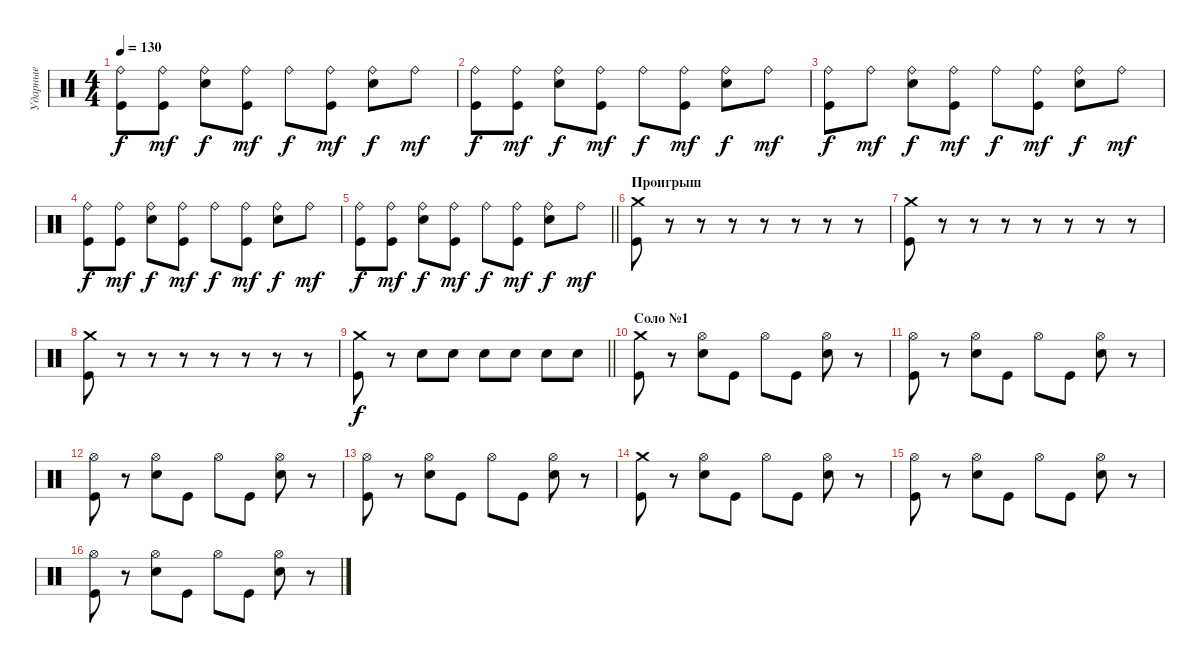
\track ("Ударные" "Ударные") {instrument percussion}
\staff {score}
\articulation defaults
\ts (4 4)
\tempo 130
\clef neutral
\ks c
("Ride (bell)" "Kick (hit)").8{dy f} ("Ride (bell)" "Kick (hit)").8{dy mf} ("Ride (bell)" "Electric Snare (hit)").8{dy f} ("Ride (bell)" "Kick (hit)").8{dy mf} "Ride (bell)".8{dy f} ("Ride (bell)" "Kick (hit)").8{dy mf} ("Ride (bell)" "Electric Snare (hit)").8{dy f} "Ride (bell)".8{dy mf} |
("Ride (bell)" "Kick (hit)").8{dy f} ("Ride (bell)" "Kick (hit)").8{dy mf} ("Ride (bell)" "Electric Snare (hit)").8{dy f} ("Ride (bell)" "Kick (hit)").8{dy mf} "Ride (bell)".8{dy f} ("Ride (bell)" "Kick (hit)").8{dy mf} ("Ride (bell)" "Electric Snare (hit)").8{dy f} "Ride (bell)".8{dy mf} |
("Ride (bell)" "Kick (hit)").8{dy f} "Ride (bell)".8{dy mf} ("Ride (bell)" "Electric Snare (hit)").8{dy f} ("Ride (bell)" "Kick (hit)").8{dy mf} "Ride (bell)".8{dy f} ("Ride (bell)" "Kick (hit)").8{dy mf} ("Ride (bell)" "Electric Snare (hit)").8{dy f} "Ride (bell)".8{dy mf} |
("Ride (bell)" "Kick (hit)").8{dy f} ("Ride (bell)" "Kick (hit)").8{dy mf} ("Ride (bell)" "Electric Snare (hit)").8{dy f} ("Ride (bell)" "Kick (hit)").8{dy mf} "Ride (bell)".8{dy f} ("Ride (bell)" "Kick (hit)").8{dy mf} ("Ride (bell)" "Electric Snare (hit)").8{dy f} "Ride (bell)".8{dy mf} |
\barLineRight lightlight
("Ride (bell)" "Kick (hit)").8{dy f} ("Ride (bell)" "Kick (hit)").8{dy mf} ("Ride (bell)" "Electric Snare (hit)").8{dy f} ("Ride (bell)" "Kick (hit)").8{dy mf} "Ride (bell)".8{dy f} ("Ride (bell)" "Kick (hit)").8{dy mf} ("Ride (bell)" "Electric Snare (hit)").8{dy f} "Ride (bell)".8{dy mf} |
\section ("" "Проигрыш")
("Crash medium (hit)" "Kick (hit)").8 r.8 r.8 r.8 r.8 r.8 r.8 r.8 |
("Crash medium (hit)" "Kick (hit)").8 r.8 r.8 r.8 r.8 r.8 r.8 r.8 |
("Crash medium (hit)" "Kick (hit)").8 r.8 r.8 r.8 r.8 r.8 r.8 r.8 |
\barLineRight lightlight
("Crash medium (hit)" "Kick (hit)").8{dy f} r.8 "Electric Snare (hit)".8 "Electric Snare (hit)".8 "Electric Snare (hit)".8 "Electric Snare (hit)".8 "Electric Snare (hit)".8 "Electric Snare (hit)".8 |
\section ("" "Соло №1")
("Crash medium (hit)" "Kick (hit)").8 r.8 ("Hi-Hat (open)" "Electric Snare (hit)").8 "Kick (hit)".8 "Hi-Hat (open)".8 "Kick (hit)".8 ("Hi-Hat (open)" "Electric Snare (hit)").8 r.8 |
("Hi-Hat (open)" "Kick (hit)").8 r.8 ("Hi-Hat (open)" "Electric Snare (hit)").8 "Kick (hit)".8 "Hi-Hat (open)".8 "Kick (hit)".8 ("Hi-Hat (open)" "Electric Snare (hit)").8 r.8 |
("Hi-Hat (open)" "Kick (hit)").8 r.8 ("Hi-Hat (open)" "Electric Snare (hit)").8 "Kick (hit)".8 "Hi-Hat (open)".8 "Kick (hit)".8 ("Hi-Hat (open)" "Electric Snare (hit)").8 r.8 |
("Hi-Hat (open)" "Kick (hit)").8 r.8 ("Hi-Hat (open)" "Electric Snare (hit)").8 "Kick (hit)".8 "Hi-Hat (open)".8 "Kick (hit)".8 ("Hi-Hat (open)" "Electric Snare (hit)").8 r.8 |
("Crash medium (hit)" "Kick (hit)").8 r.8 ("Hi-Hat (open)" "Electric Snare (hit)").8 "Kick (hit)".8 "Hi-Hat (open)".8 "Kick (hit)".8 ("Hi-Hat (open)" "Electric Snare (hit)").8 r.8 |
("Hi-Hat (open)" "Kick (hit)").8 r.8 ("Hi-Hat (open)" "Electric Snare (hit)").8 "Kick (hit)".8 "Hi-Hat (open)".8 "Kick (hit)".8 ("Hi-Hat (open)" "Electric Snare (hit)").8 r.8 |
("Hi-Hat (open)" "Kick (hit)").8 r.8 ("Hi-Hat (open)" "Electric Snare (hit)").8 "Kick (hit)".8 "Hi-Hat (open)".8 "Kick (hit)".8 ("Hi-Hat (open)" "Electric Snare (hit)").8 r.8
